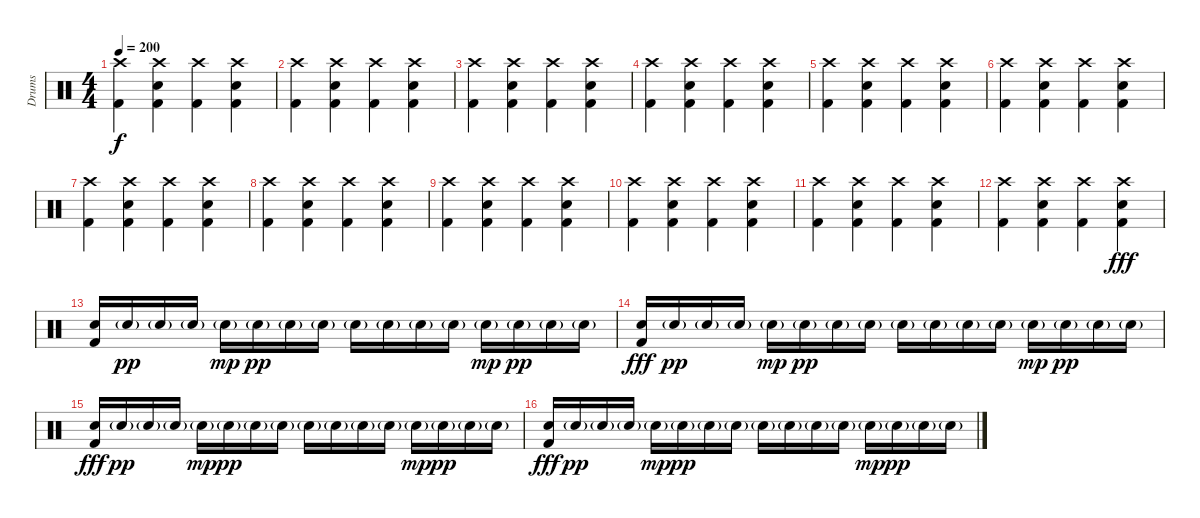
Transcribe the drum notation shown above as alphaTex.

\track ("Drums" "Drums") {instrument percussion}
\staff {score}
\articulation defaults
\ts (4 4)
\tempo 200
\clef neutral
\ks c
("Crash high (hit)" "Kick (hit) 2").4{dy f} ("Crash high (hit)" "Snare (hit) 2" "Kick (hit) 2").4 ("Crash high (hit)" "Kick (hit) 2").4 ("Crash high (hit)" "Snare (hit) 2" "Kick (hit) 2").4 |
("Crash high (hit)" "Kick (hit) 2").4 ("Crash high (hit)" "Snare (hit) 2" "Kick (hit) 2").4 ("Crash high (hit)" "Kick (hit) 2").4 ("Crash high (hit)" "Snare (hit) 2" "Kick (hit) 2").4 |
("Crash high (hit)" "Kick (hit) 2").4 ("Crash high (hit)" "Snare (hit) 2" "Kick (hit) 2").4 ("Crash high (hit)" "Kick (hit) 2").4 ("Crash high (hit)" "Snare (hit) 2" "Kick (hit) 2").4 |
("Crash high (hit)" "Kick (hit) 2").4 ("Crash high (hit)" "Snare (hit) 2" "Kick (hit) 2").4 ("Crash high (hit)" "Kick (hit) 2").4 ("Crash high (hit)" "Snare (hit) 2" "Kick (hit) 2").4 |
("Crash high (hit)" "Kick (hit) 2").4 ("Crash high (hit)" "Snare (hit) 2" "Kick (hit) 2").4 ("Crash high (hit)" "Kick (hit) 2").4 ("Crash high (hit)" "Snare (hit) 2" "Kick (hit) 2").4 |
("Crash high (hit)" "Kick (hit) 2").4 ("Crash high (hit)" "Snare (hit) 2" "Kick (hit) 2").4 ("Crash high (hit)" "Kick (hit) 2").4 ("Crash high (hit)" "Snare (hit) 2" "Kick (hit) 2").4 |
("Crash high (hit)" "Kick (hit) 2").4 ("Crash high (hit)" "Snare (hit) 2" "Kick (hit) 2").4 ("Crash high (hit)" "Kick (hit) 2").4 ("Crash high (hit)" "Snare (hit) 2" "Kick (hit) 2").4 |
("Crash high (hit)" "Kick (hit) 2").4 ("Crash high (hit)" "Snare (hit) 2" "Kick (hit) 2").4 ("Crash high (hit)" "Kick (hit) 2").4 ("Crash high (hit)" "Snare (hit) 2" "Kick (hit) 2").4 |
("Crash high (hit)" "Kick (hit) 2").4 ("Crash high (hit)" "Snare (hit) 2" "Kick (hit) 2").4 ("Crash high (hit)" "Kick (hit) 2").4 ("Crash high (hit)" "Snare (hit) 2" "Kick (hit) 2").4 |
("Crash high (hit)" "Kick (hit) 2").4 ("Crash high (hit)" "Snare (hit) 2" "Kick (hit) 2").4 ("Crash high (hit)" "Kick (hit) 2").4 ("Crash high (hit)" "Snare (hit) 2" "Kick (hit) 2").4 |
("Crash high (hit)" "Kick (hit) 2").4 ("Crash high (hit)" "Snare (hit) 2" "Kick (hit) 2").4 ("Crash high (hit)" "Kick (hit) 2").4 ("Crash high (hit)" "Snare (hit) 2" "Kick (hit) 2").4 |
("Crash high (hit)" "Kick (hit) 2").4 ("Crash high (hit)" "Snare (hit) 2" "Kick (hit) 2").4 ("Crash high (hit)" "Kick (hit) 2").4 ("Crash high (hit)" "Snare (hit) 2" "Kick (hit) 2").4{dy fff} |
("Snare (hit) 2" "Kick (hit) 2").16 "Snare (hit) 2"{g}.16{dy pp} "Snare (hit) 2"{g}.16 "Snare (hit) 2"{g}.16 "Snare (hit) 2"{g}.16{dy mp} "Snare (hit) 2"{g}.16{dy pp} "Snare (hit) 2"{g}.16 "Snare (hit) 2"{g}.16 "Snare (hit) 2"{g}.16 "Snare (hit) 2"{g}.16 "Snare (hit) 2"{g}.16 "Snare (hit) 2"{g}.16 "Snare (hit) 2"{g}.16{dy mp} "Snare (hit) 2"{g}.16{dy pp} "Snare (hit) 2"{g}.16 "Snare (hit) 2"{g}.16 |
("Snare (hit) 2" "Kick (hit) 2").16{dy fff} "Snare (hit) 2"{g}.16{dy pp} "Snare (hit) 2"{g}.16 "Snare (hit) 2"{g}.16 "Snare (hit) 2"{g}.16{dy mp} "Snare (hit) 2"{g}.16{dy pp} "Snare (hit) 2"{g}.16 "Snare (hit) 2"{g}.16 "Snare (hit) 2"{g}.16 "Snare (hit) 2"{g}.16 "Snare (hit) 2"{g}.16 "Snare (hit) 2"{g}.16 "Snare (hit) 2"{g}.16{dy mp} "Snare (hit) 2"{g}.16{dy pp} "Snare (hit) 2"{g}.16 "Snare (hit) 2"{g}.16 |
("Snare (hit) 2" "Kick (hit) 2").16{dy fff} "Snare (hit) 2"{g}.16{dy pp} "Snare (hit) 2"{g}.16 "Snare (hit) 2"{g}.16 "Snare (hit) 2"{g}.16{dy mp} "Snare (hit) 2"{g}.16{dy pp} "Snare (hit) 2"{g}.16 "Snare (hit) 2"{g}.16 "Snare (hit) 2"{g}.16 "Snare (hit) 2"{g}.16 "Snare (hit) 2"{g}.16 "Snare (hit) 2"{g}.16 "Snare (hit) 2"{g}.16{dy mp} "Snare (hit) 2"{g}.16{dy pp} "Snare (hit) 2"{g}.16 "Snare (hit) 2"{g}.16 |
("Snare (hit) 2" "Kick (hit) 2").16{dy fff} "Snare (hit) 2"{g}.16{dy pp} "Snare (hit) 2"{g}.16 "Snare (hit) 2"{g}.16 "Snare (hit) 2"{g}.16{dy mp} "Snare (hit) 2"{g}.16{dy pp} "Snare (hit) 2"{g}.16 "Snare (hit) 2"{g}.16 "Snare (hit) 2"{g}.16 "Snare (hit) 2"{g}.16 "Snare (hit) 2"{g}.16 "Snare (hit) 2"{g}.16 "Snare (hit) 2"{g}.16{dy mp} "Snare (hit) 2"{g}.16{dy pp} "Snare (hit) 2"{g}.16 "Snare (hit) 2"{g}.16
